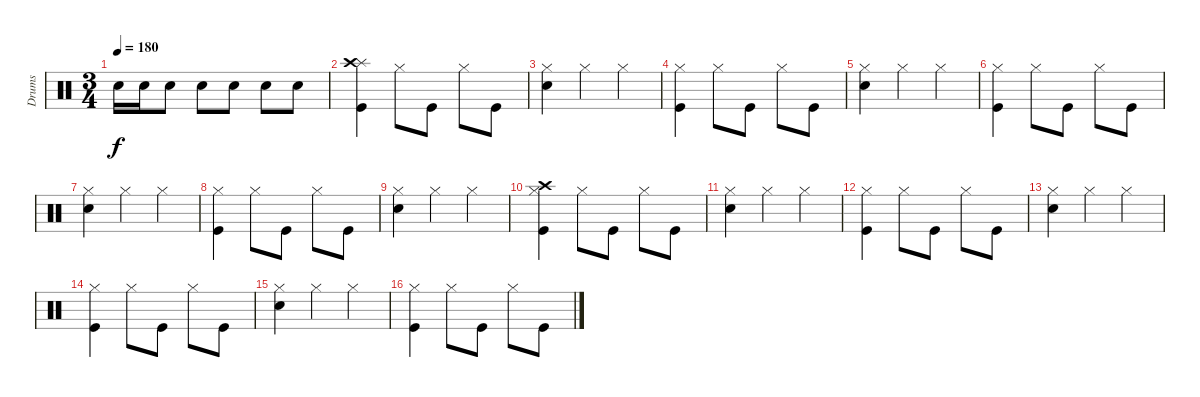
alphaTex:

\track ("Drums" "Drums") {instrument percussion}
\staff {score}
\articulation defaults
\ts (3 4)
\tempo 180
\clef neutral
\ks c "Electric Snare (hit)".16{dy f} "Electric Snare (hit)".16 "Electric Snare (hit)".8 "Electric Snare (hit)".8 "Electric Snare (hit)".8 "Electric Snare (hit)".8 "Electric Snare (hit)".8
|
("Splash (hit)" "Crash high (hit)" "Kick (hit)").4 "Hi-Hat (closed)".8 "Kick (hit)".8 "Hi-Hat (closed)".8 "Kick (hit)".8 |
("Hi-Hat (closed)" "Electric Snare (hit)").4 "Hi-Hat (closed)".4 "Hi-Hat (closed)".4 |
("Hi-Hat (closed)" "Kick (hit)").4 "Hi-Hat (closed)".8 "Kick (hit)".8 "Hi-Hat (closed)".8 "Kick (hit)".8 |
("Hi-Hat (closed)" "Electric Snare (hit)").4 "Hi-Hat (closed)".4 "Hi-Hat (closed)".4 |
("Hi-Hat (closed)" "Kick (hit)").4 "Hi-Hat (closed)".8 "Kick (hit)".8 "Hi-Hat (closed)".8 "Kick (hit)".8 |
("Hi-Hat (closed)" "Electric Snare (hit)").4 "Hi-Hat (closed)".4 "Hi-Hat (closed)".4 |
("Hi-Hat (closed)" "Kick (hit)").4 "Hi-Hat (closed)".8 "Kick (hit)".8 "Hi-Hat (closed)".8 "Kick (hit)".8 |
("Hi-Hat (closed)" "Electric Snare (hit)").4 "Hi-Hat (closed)".4 "Hi-Hat (closed)".4 |
("Crash high (hit)" "Hi-Hat (closed)" "Kick (hit)").4 "Hi-Hat (closed)".8 "Kick (hit)".8 "Hi-Hat (closed)".8 "Kick (hit)".8 |
("Hi-Hat (closed)" "Electric Snare (hit)").4 "Hi-Hat (closed)".4 "Hi-Hat (closed)".4 |
("Hi-Hat (closed)" "Kick (hit)").4 "Hi-Hat (closed)".8 "Kick (hit)".8 "Hi-Hat (closed)".8 "Kick (hit)".8 |
("Hi-Hat (closed)" "Electric Snare (hit)").4 "Hi-Hat (closed)".4 "Hi-Hat (closed)".4 |
("Hi-Hat (closed)" "Kick (hit)").4 "Hi-Hat (closed)".8 "Kick (hit)".8 "Hi-Hat (closed)".8 "Kick (hit)".8 |
("Hi-Hat (closed)" "Electric Snare (hit)").4 "Hi-Hat (closed)".4 "Hi-Hat (closed)".4 |
("Hi-Hat (closed)" "Kick (hit)").4 "Hi-Hat (closed)".8 "Kick (hit)".8 "Hi-Hat (closed)".8 "Kick (hit)".8
